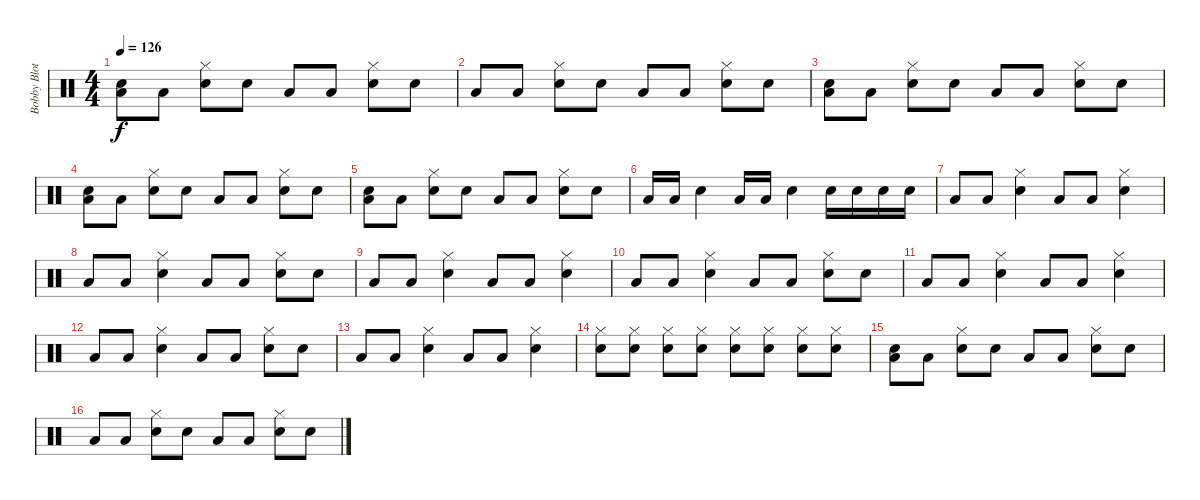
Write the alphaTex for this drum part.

\track ("Bobby Blotzer" "Bobby Blot") {instrument percussion}
\staff {score}
\articulation defaults
\ts (4 4)
\tempo 126
\clef neutral
\ks c
("Snare (hit) 2" "Low Floor Tom (hit)").8{dy f} "Low Floor Tom (hit)".8 ("Hi-Hat (closed)" "Snare (hit) 2").8 "Snare (hit) 2".8 "Low Floor Tom (hit)".8 "Low Floor Tom (hit)".8 ("Hi-Hat (closed)" "Snare (hit) 2").8 "Snare (hit) 2".8 |
"Low Floor Tom (hit)".8 "Low Floor Tom (hit)".8 ("Hi-Hat (closed)" "Snare (hit) 2").8 "Snare (hit) 2".8 "Low Floor Tom (hit)".8 "Low Floor Tom (hit)".8 ("Hi-Hat (closed)" "Snare (hit) 2").8 "Snare (hit) 2".8 |
("Snare (hit) 2" "Low Floor Tom (hit)").8 "Low Floor Tom (hit)".8 ("Hi-Hat (closed)" "Snare (hit) 2").8 "Snare (hit) 2".8 "Low Floor Tom (hit)".8 "Low Floor Tom (hit)".8 ("Hi-Hat (closed)" "Snare (hit) 2").8 "Snare (hit) 2".8 |
("Snare (hit) 2" "Low Floor Tom (hit)").8 "Low Floor Tom (hit)".8 ("Hi-Hat (closed)" "Snare (hit) 2").8 "Snare (hit) 2".8 "Low Floor Tom (hit)".8 "Low Floor Tom (hit)".8 ("Hi-Hat (closed)" "Snare (hit) 2").8 "Snare (hit) 2".8 |
("Snare (hit) 2" "Low Floor Tom (hit)").8 "Low Floor Tom (hit)".8 ("Hi-Hat (closed)" "Snare (hit) 2").8 "Snare (hit) 2".8 "Low Floor Tom (hit)".8 "Low Floor Tom (hit)".8 ("Hi-Hat (closed)" "Snare (hit) 2").8 "Snare (hit) 2".8 |
"Low Floor Tom (hit)".16 "Low Floor Tom (hit)".16 "Snare (hit) 2".4 "Low Floor Tom (hit)".16 "Low Floor Tom (hit)".16 "Snare (hit) 2".4 "Snare (hit) 2".16 "Snare (hit) 2".16 "Snare (hit) 2".16 "Snare (hit) 2".16 |
"Low Floor Tom (hit)".8{volume 13} "Low Floor Tom (hit)".8 ("Hi-Hat (closed)" "Snare (hit) 2").4 "Low Floor Tom (hit)".8 "Low Floor Tom (hit)".8 ("Hi-Hat (closed)" "Snare (hit) 2").4 |
"Low Floor Tom (hit)".8 "Low Floor Tom (hit)".8 ("Hi-Hat (closed)" "Snare (hit) 2").4 "Low Floor Tom (hit)".8 "Low Floor Tom (hit)".8 ("Hi-Hat (closed)" "Snare (hit) 2").8 "Snare (hit) 2".8 |
"Low Floor Tom (hit)".8{volume 13} "Low Floor Tom (hit)".8 ("Hi-Hat (closed)" "Snare (hit) 2").4 "Low Floor Tom (hit)".8 "Low Floor Tom (hit)".8 ("Hi-Hat (closed)" "Snare (hit) 2").4 |
"Low Floor Tom (hit)".8 "Low Floor Tom (hit)".8 ("Hi-Hat (closed)" "Snare (hit) 2").4 "Low Floor Tom (hit)".8 "Low Floor Tom (hit)".8 ("Hi-Hat (closed)" "Snare (hit) 2").8 "Snare (hit) 2".8 |
"Low Floor Tom (hit)".8{volume 13} "Low Floor Tom (hit)".8 ("Hi-Hat (closed)" "Snare (hit) 2").4 "Low Floor Tom (hit)".8 "Low Floor Tom (hit)".8 ("Hi-Hat (closed)" "Snare (hit) 2").4 |
"Low Floor Tom (hit)".8 "Low Floor Tom (hit)".8 ("Hi-Hat (closed)" "Snare (hit) 2").4 "Low Floor Tom (hit)".8 "Low Floor Tom (hit)".8 ("Hi-Hat (closed)" "Snare (hit) 2").8 "Snare (hit) 2".8 |
"Low Floor Tom (hit)".8{volume 13} "Low Floor Tom (hit)".8 ("Hi-Hat (closed)" "Snare (hit) 2").4 "Low Floor Tom (hit)".8 "Low Floor Tom (hit)".8 ("Hi-Hat (closed)" "Snare (hit) 2").4 |
("Hi-Hat (closed)" "Snare (hit) 2").8 ("Hi-Hat (closed)" "Snare (hit) 2").8 ("Hi-Hat (closed)" "Snare (hit) 2").8 ("Hi-Hat (closed)" "Snare (hit) 2").8 ("Hi-Hat (closed)" "Snare (hit) 2").8 ("Hi-Hat (closed)" "Snare (hit) 2").8 ("Hi-Hat (closed)" "Snare (hit) 2").8 ("Hi-Hat (closed)" "Snare (hit) 2").8 |
("Snare (hit) 2" "Low Floor Tom (hit)").8 "Low Floor Tom (hit)".8 ("Hi-Hat (closed)" "Snare (hit) 2").8 "Snare (hit) 2".8 "Low Floor Tom (hit)".8 "Low Floor Tom (hit)".8 ("Hi-Hat (closed)" "Snare (hit) 2").8 "Snare (hit) 2".8 |
"Low Floor Tom (hit)".8 "Low Floor Tom (hit)".8 ("Hi-Hat (closed)" "Snare (hit) 2").8 "Snare (hit) 2".8 "Low Floor Tom (hit)".8 "Low Floor Tom (hit)".8 ("Hi-Hat (closed)" "Snare (hit) 2").8 "Snare (hit) 2".8
